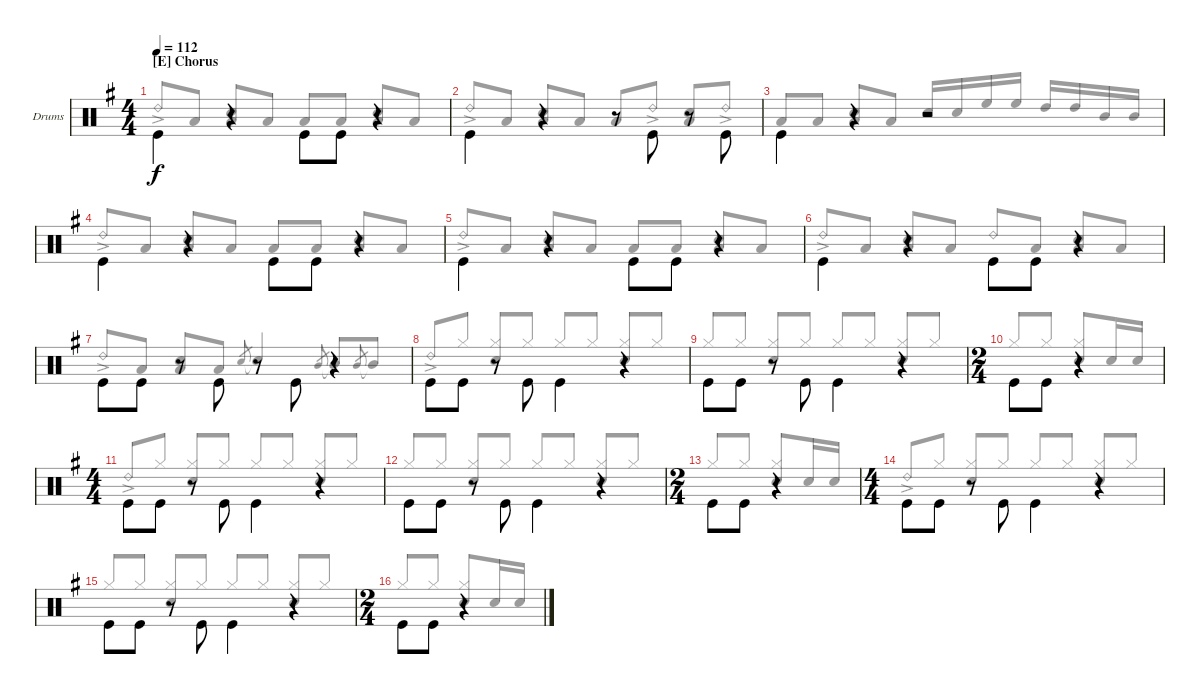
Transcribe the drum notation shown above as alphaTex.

\defaultSystemsLayout 4
\bracketExtendMode groupsimilarinstruments
\firstSystemTrackNameOrientation horizontal
\otherSystemsTrackNameOrientation horizontal
\track ("Drumkit" "Drums") {instrument percussion}
\staff {score}
\articulation defaults
\voice
\ts (4 4)
\section ("E" "Chorus")
\tempo 112
\clef neutral
\scale
1.04288
\ks g "Kick (hit)".4{dy f beam invert}
r.4{beam invert} "Kick (hit)".8{beam invert} "Kick (hit)".8 r.4{beam invert} |
\scale
0.957125 "Kick (hit)".4{beam invert} r.4{beam invert} r.8 "Kick (hit)".8{beam invert} r.8 "Kick (hit)".8{beam invert} |
\scale
1.04288 "Kick (hit)".4{beam invert} r.4{beam invert} r.2 |
\scale
0.957125 "Kick (hit)".4{beam invert} r.4{beam invert} "Kick (hit)".8{beam invert} "Kick (hit)".8 r.4{beam invert} |
\scale
1.04288 "Kick (hit)".4{beam invert} r.4{beam invert} "Kick (hit)".8{beam invert} "Kick (hit)".8 r.4{beam invert} |
\scale
0.957125 "Kick (hit)".4{beam invert} r.4{beam invert} "Kick (hit)".8{beam invert} "Kick (hit)".8 r.4{beam invert} |
\scale
1.04288 "Kick (hit)".8{beam invert} "Kick (hit)".8 r.8{beam invert} "Kick (hit)".8{beam invert} r.8 "Kick (hit)".8{beam invert} r.4 |
\scale
0.957125 "Kick (hit)".8{beam invert} "Kick (hit)".8 r.8 "Kick (hit)".8{beam invert} "Kick (hit)".4{beam invert} r.4 |
\scale
1.04288 "Kick (hit)".8{beam invert} "Kick (hit)".8 r.8 "Kick (hit)".8{beam invert} "Kick (hit)".4{beam invert} r.4 |
\ts (2 4)
\scale
0.957125 "Kick (hit)".8{beam invert} "Kick (hit)".8 r.4 |
\ts (4 4)
\scale
1.04288 "Kick (hit)".8{beam invert} "Kick (hit)".8 r.8 "Kick (hit)".8{beam invert} "Kick (hit)".4{beam invert} r.4 |
\scale
0.957125 "Kick (hit)".8{beam invert} "Kick (hit)".8 r.8 "Kick (hit)".8{beam invert} "Kick (hit)".4{beam invert} r.4 |
\ts (2 4)
\scale
1.04288 "Kick (hit)".8{beam invert} "Kick (hit)".8 r.4 |
\ts (4 4)
\scale
0.957125 "Kick (hit)".8{beam invert} "Kick (hit)".8 r.8 "Kick (hit)".8{beam invert} "Kick (hit)".4{beam invert} r.4 |
\scale
1.04288 "Kick (hit)".8{beam invert} "Kick (hit)".8 r.8 "Kick (hit)".8{beam invert} "Kick (hit)".4{beam invert} r.4 |
\ts (2 4)
\scale
0.957125 "Kick (hit)".8{beam invert} "Kick (hit)".8 r.4
\voice
\clef neutral
\ottava regular
\simile none
\scale
1.04288
\ks g "Ride (bell) 2"{ac}.8{dy f beam invert} "Low Tom (hit)".8
("Low Tom (hit)" "Snare (hit) 2").8{beam invert} "Low Tom (hit)".8 "Low Tom (hit)".8{beam invert} "Low Tom (hit)".8 ("Low Tom (hit)" "Snare (hit) 2").8{beam invert} "Low Tom (hit)".8 |
\scale
0.957125 "Ride (bell) 2"{ac}.8{beam invert} "Low Tom (hit)".8 ("Low Tom (hit)" "Snare (hit) 2").8{beam invert} "Low Tom (hit)".8 "Low Tom (hit)".8{beam invert} "Ride (bell) 2"{ac}.8 ("Low Tom (hit)" "Snare (hit) 2").8{beam invert} "Ride (bell) 2"{ac}.8 |
\scale
1.04288 "Low Tom (hit)".8{beam invert} "Low Tom (hit)".8 ("Low Tom (hit)" "Snare (hit) 2").8{beam invert} "Low Tom (hit)".8 "Snare (hit) 2".16{beam invert} "Snare (hit) 2".16 "High Floor Tom (hit)".16 "High Floor Tom (hit)".16 "High Tom (hit)".16{beam invert} "High Tom (hit)".16 "Mid Tom (hit)".16 "Mid Tom (hit)".16 |
\scale
0.957125 "Ride (bell) 2"{ac}.8{beam invert} "Low Tom (hit)".8 ("Low Tom (hit)" "Snare (hit) 2").8{beam invert} "Low Tom (hit)".8 "Low Tom (hit)".8{beam invert} "Low Tom (hit)".8 ("Low Tom (hit)" "Snare (hit) 2").8{beam invert} "Low Tom (hit)".8 |
\scale
1.04288 "Ride (bell) 2"{ac}.8{beam invert} "Low Tom (hit)".8 ("Low Tom (hit)" "Snare (hit) 2").8{beam invert} "Low Tom (hit)".8 "Low Tom (hit)".8{beam invert} "Low Tom (hit)".8 ("Low Tom (hit)" "Snare (hit) 2").8{beam invert} "Low Tom (hit)".8 |
\scale
0.957125 "Ride (bell) 2"{ac}.8{beam invert} "Low Tom (hit)".8 ("Low Tom (hit)" "Snare (hit) 2").8{beam invert} "Low Tom (hit)".8 "Ride (bell) 2".8{beam invert} "Low Tom (hit)".8 ("Low Tom (hit)" "Snare (hit) 2").8{beam invert} "Low Tom (hit)".8 |
\scale
1.04288 "Ride (bell) 2"{ac}.8{beam invert} "Low Tom (hit)".8 ("Low Tom (hit)" "Snare (hit) 2").8{beam invert} "Low Tom (hit)".8 "Snare (hit) 2".8{gr beam invert} "Snare (hit) 2"{t}.4{beam invert} "Mid Tom (hit)".8{gr beam invert} "Mid Tom (hit)"{t}.8{beam invert} "Mid Tom (hit)".8{gr beam invert} "Mid Tom (hit)"{t}.8{beam invert} |
\scale
0.957125 "Ride (bell) 2"{ac}.8{beam invert} "Hi-Hat (closed)".8 ("Hi-Hat (closed)" "Snare (hit) 2").8{beam invert} "Hi-Hat (closed)".8 "Hi-Hat (closed)".8{beam invert} "Hi-Hat (closed)".8 ("Hi-Hat (closed)" "Snare (hit) 2").8{beam invert} "Hi-Hat (closed)".8 |
\scale
1.04288 "Hi-Hat (closed)".8{beam invert} "Hi-Hat (closed)".8 ("Hi-Hat (closed)" "Snare (hit) 2").8{beam invert} "Hi-Hat (closed)".8 "Hi-Hat (closed)".8{beam invert} "Hi-Hat (closed)".8 ("Hi-Hat (closed)" "Snare (hit) 2").8{beam invert} "Hi-Hat (closed)".8 |
\scale
0.957125 "Hi-Hat (closed)".8{beam invert} "Hi-Hat (closed)".8 ("Snare (hit) 2" "Hi-Hat (closed)").8{beam invert} "Snare (hit) 2".16 "Snare (hit) 2".16 |
\scale
1.04288 "Ride (bell) 2"{ac}.8{beam invert} "Hi-Hat (closed)".8 ("Hi-Hat (closed)" "Snare (hit) 2").8{beam invert} "Hi-Hat (closed)".8 "Hi-Hat (closed)".8{beam invert} "Hi-Hat (closed)".8 ("Hi-Hat (closed)" "Snare (hit) 2").8{beam invert} "Hi-Hat (closed)".8 |
\scale
0.957125 "Hi-Hat (closed)".8{beam invert} "Hi-Hat (closed)".8 ("Hi-Hat (closed)" "Snare (hit) 2").8{beam invert} "Hi-Hat (closed)".8 "Hi-Hat (closed)".8{beam invert} "Hi-Hat (closed)".8 ("Hi-Hat (closed)" "Snare (hit) 2").8{beam invert} "Hi-Hat (closed)".8 |
\scale
1.04288 "Hi-Hat (closed)".8{beam invert} "Hi-Hat (closed)".8 ("Snare (hit) 2" "Hi-Hat (closed)").8{beam invert} "Snare (hit) 2".16 "Snare (hit) 2".16 |
\scale
0.957125 "Ride (bell) 2"{ac}.8{beam invert} "Hi-Hat (closed)".8 ("Hi-Hat (closed)" "Snare (hit) 2").8{beam invert} "Hi-Hat (closed)".8 "Hi-Hat (closed)".8{beam invert} "Hi-Hat (closed)".8 ("Hi-Hat (closed)" "Snare (hit) 2").8{beam invert} "Hi-Hat (closed)".8 |
\scale
1.04288 "Hi-Hat (closed)".8{beam invert} "Hi-Hat (closed)".8 ("Hi-Hat (closed)" "Snare (hit) 2").8{beam invert} "Hi-Hat (closed)".8 "Hi-Hat (closed)".8{beam invert} "Hi-Hat (closed)".8 ("Hi-Hat (closed)" "Snare (hit) 2").8{beam invert} "Hi-Hat (closed)".8 |
\scale
0.957125 "Hi-Hat (closed)".8{beam invert} "Hi-Hat (closed)".8 ("Snare (hit) 2" "Hi-Hat (closed)").8{beam invert} "Snare (hit) 2".16 "Snare (hit) 2".16
